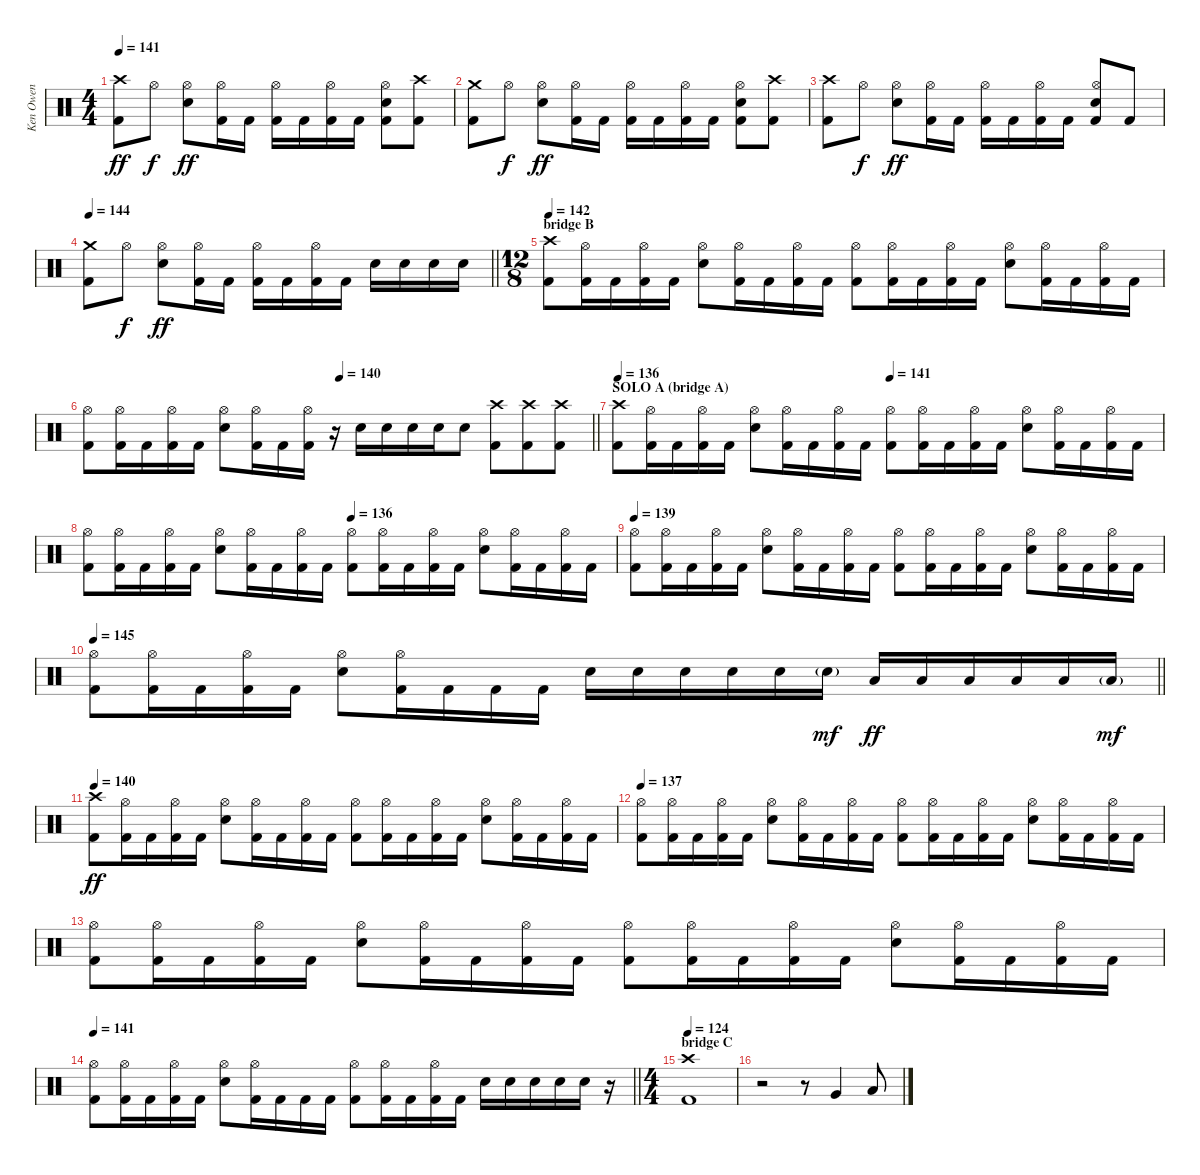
\track ("Ken Owen" "Ken Owen") {instrument percussion}
\staff {score}
\articulation defaults
\ts (4 4)
\tempo 141
\clef neutral
\ks c
("Crash high (hit)" "Kick (hit) 2").8{dy ff} "Hi-Hat (open)".8{dy f} ("Hi-Hat (open)" "Snare (hit) 2").8{dy ff} ("Hi-Hat (open)" "Kick (hit) 2").16 "Kick (hit) 2".16 ("Hi-Hat (open)" "Kick (hit) 2").16 "Kick (hit) 2".16 ("Hi-Hat (open)" "Kick (hit) 2").16 "Kick (hit) 2".16 ("Hi-Hat (open)" "Snare (hit) 2" "Kick (hit) 2").8 ("Crash high (hit)" "Kick (hit) 2").8 |
("Crash medium (hit)" "Kick (hit) 2").8 "Hi-Hat (open)".8{dy f} ("Hi-Hat (open)" "Snare (hit) 2").8{dy ff} ("Hi-Hat (open)" "Kick (hit) 2").16 "Kick (hit) 2".16 ("Hi-Hat (open)" "Kick (hit) 2").16 "Kick (hit) 2".16 ("Hi-Hat (open)" "Kick (hit) 2").16 "Kick (hit) 2".16 ("Hi-Hat (open)" "Snare (hit) 2" "Kick (hit) 2").8 ("Crash high (hit)" "Kick (hit) 2").8 |
("Crash high (hit)" "Kick (hit) 2").8 "Hi-Hat (open)".8{dy f} ("Hi-Hat (open)" "Snare (hit) 2").8{dy ff} ("Hi-Hat (open)" "Kick (hit) 2").16 "Kick (hit) 2".16 ("Hi-Hat (open)" "Kick (hit) 2").16 "Kick (hit) 2".16 ("Hi-Hat (open)" "Kick (hit) 2").16 "Kick (hit) 2".16 ("Hi-Hat (open)" "Snare (hit) 2" "Kick (hit) 2").8 "Kick (hit) 2".8 |
\tempo 144
\barLineRight lightlight
("Crash medium (hit)" "Kick (hit) 2").8 "Hi-Hat (open)".8{dy f} ("Hi-Hat (open)" "Snare (hit) 2").8{dy ff} ("Hi-Hat (open)" "Kick (hit) 2").16 "Kick (hit) 2".16 ("Hi-Hat (open)" "Kick (hit) 2").16 "Kick (hit) 2".16 ("Hi-Hat (open)" "Kick (hit) 2").16 "Kick (hit) 2".16 "Snare (hit) 2".16 "Snare (hit) 2".16 "Snare (hit) 2".16 "Snare (hit) 2".16 |
\ts (12 8)
\section ("" "bridge B")
\tempo 142
("Crash high (hit)" "Kick (hit) 2").8 ("Hi-Hat (open)" "Kick (hit) 2").16 "Kick (hit) 2".16 ("Hi-Hat (open)" "Kick (hit) 2").16 "Kick (hit) 2".16 ("Hi-Hat (open)" "Snare (hit) 2").8 ("Hi-Hat (open)" "Kick (hit) 2").16 "Kick (hit) 2".16 ("Hi-Hat (open)" "Kick (hit) 2").16 "Kick (hit) 2".16 ("Hi-Hat (open)" "Kick (hit) 2").8 ("Hi-Hat (open)" "Kick (hit) 2").16 "Kick (hit) 2".16 ("Hi-Hat (open)" "Kick (hit) 2").16 "Kick (hit) 2".16 ("Hi-Hat (open)" "Snare (hit) 2").8 ("Hi-Hat (open)" "Kick (hit) 2").16 "Kick (hit) 2".16 ("Hi-Hat (open)" "Kick (hit) 2").16 "Kick (hit) 2".16 |
\tempo (140 0.5)
\barLineRight lightlight
("Hi-Hat (open)" "Kick (hit) 2").8 ("Hi-Hat (open)" "Kick (hit) 2").16 "Kick (hit) 2".16 ("Hi-Hat (open)" "Kick (hit) 2").16 "Kick (hit) 2".16 ("Hi-Hat (open)" "Snare (hit) 2").8 ("Hi-Hat (open)" "Kick (hit) 2").16 "Kick (hit) 2".16 ("Hi-Hat (open)" "Kick (hit) 2").16 r.16 "Snare (hit) 2".16 "Snare (hit) 2".16 "Snare (hit) 2".16 "Snare (hit) 2".16 "Snare (hit) 2".8 ("Crash high (hit)" "Kick (hit) 2").8 ("Crash high (hit)" "Kick (hit) 2").8 ("Crash high (hit)" "Kick (hit) 2").8 |
\section ("" "SOLO A (bridge A)")
\tempo 136
\tempo (141 0.5)
("Crash high (hit)" "Kick (hit) 2").8 ("Hi-Hat (open)" "Kick (hit) 2").16 "Kick (hit) 2".16 ("Hi-Hat (open)" "Kick (hit) 2").16 "Kick (hit) 2".16 ("Hi-Hat (open)" "Snare (hit) 2").8 ("Hi-Hat (open)" "Kick (hit) 2").16 "Kick (hit) 2".16 ("Hi-Hat (open)" "Kick (hit) 2").16 "Kick (hit) 2".16 ("Hi-Hat (open)" "Kick (hit) 2").8 ("Hi-Hat (open)" "Kick (hit) 2").16 "Kick (hit) 2".16 ("Hi-Hat (open)" "Kick (hit) 2").16 "Kick (hit) 2".16 ("Hi-Hat (open)" "Snare (hit) 2").8 ("Hi-Hat (open)" "Kick (hit) 2").16 "Kick (hit) 2".16 ("Hi-Hat (open)" "Kick (hit) 2").16 "Kick (hit) 2".16 |
\tempo (136 0.5)
("Hi-Hat (open)" "Kick (hit) 2").8 ("Hi-Hat (open)" "Kick (hit) 2").16 "Kick (hit) 2".16 ("Hi-Hat (open)" "Kick (hit) 2").16 "Kick (hit) 2".16 ("Hi-Hat (open)" "Snare (hit) 2").8 ("Hi-Hat (open)" "Kick (hit) 2").16 "Kick (hit) 2".16 ("Hi-Hat (open)" "Kick (hit) 2").16 "Kick (hit) 2".16 ("Hi-Hat (open)" "Kick (hit) 2").8 ("Hi-Hat (open)" "Kick (hit) 2").16 "Kick (hit) 2".16 ("Hi-Hat (open)" "Kick (hit) 2").16 "Kick (hit) 2".16 ("Hi-Hat (open)" "Snare (hit) 2").8 ("Hi-Hat (open)" "Kick (hit) 2").16 "Kick (hit) 2".16 ("Hi-Hat (open)" "Kick (hit) 2").16 "Kick (hit) 2".16 |
\tempo 139
("Hi-Hat (open)" "Kick (hit) 2").8 ("Hi-Hat (open)" "Kick (hit) 2").16 "Kick (hit) 2".16 ("Hi-Hat (open)" "Kick (hit) 2").16 "Kick (hit) 2".16 ("Hi-Hat (open)" "Snare (hit) 2").8 ("Hi-Hat (open)" "Kick (hit) 2").16 "Kick (hit) 2".16 ("Hi-Hat (open)" "Kick (hit) 2").16 "Kick (hit) 2".16 ("Hi-Hat (open)" "Kick (hit) 2").8 ("Hi-Hat (open)" "Kick (hit) 2").16 "Kick (hit) 2".16 ("Hi-Hat (open)" "Kick (hit) 2").16 "Kick (hit) 2".16 ("Hi-Hat (open)" "Snare (hit) 2").8 ("Hi-Hat (open)" "Kick (hit) 2").16 "Kick (hit) 2".16 ("Hi-Hat (open)" "Kick (hit) 2").16 "Kick (hit) 2".16 |
\tempo 145
\barLineRight lightlight
("Hi-Hat (open)" "Kick (hit) 2").8 ("Hi-Hat (open)" "Kick (hit) 2").16 "Kick (hit) 2".16 ("Hi-Hat (open)" "Kick (hit) 2").16 "Kick (hit) 2".16 ("Hi-Hat (open)" "Snare (hit) 2").8 ("Hi-Hat (open)" "Kick (hit) 2").16 "Kick (hit) 2".16 "Kick (hit) 2".16 "Kick (hit) 2".16 "Snare (hit) 2".16 "Snare (hit) 2".16 "Snare (hit) 2".16 "Snare (hit) 2".16 "Snare (hit) 2".16 "Snare (hit) 2"{g}.16{dy mf} "Low Tom (hit)".16{dy ff} "Low Tom (hit)".16 "Low Tom (hit)".16 "Low Tom (hit)".16 "Low Tom (hit)".16 "Low Tom (hit)"{g}.16{dy mf} |
\tempo 140
("Crash high (hit)" "Kick (hit) 2").8{dy ff} ("Hi-Hat (open)" "Kick (hit) 2").16 "Kick (hit) 2".16 ("Hi-Hat (open)" "Kick (hit) 2").16 "Kick (hit) 2".16 ("Hi-Hat (open)" "Snare (hit) 2").8 ("Hi-Hat (open)" "Kick (hit) 2").16 "Kick (hit) 2".16 ("Hi-Hat (open)" "Kick (hit) 2").16 "Kick (hit) 2".16 ("Hi-Hat (open)" "Kick (hit) 2").8 ("Hi-Hat (open)" "Kick (hit) 2").16 "Kick (hit) 2".16 ("Hi-Hat (open)" "Kick (hit) 2").16 "Kick (hit) 2".16 ("Hi-Hat (open)" "Snare (hit) 2").8 ("Hi-Hat (open)" "Kick (hit) 2").16 "Kick (hit) 2".16 ("Hi-Hat (open)" "Kick (hit) 2").16 "Kick (hit) 2".16 |
\tempo 137
("Hi-Hat (open)" "Kick (hit) 2").8 ("Hi-Hat (open)" "Kick (hit) 2").16 "Kick (hit) 2".16 ("Hi-Hat (open)" "Kick (hit) 2").16 "Kick (hit) 2".16 ("Hi-Hat (open)" "Snare (hit) 2").8 ("Hi-Hat (open)" "Kick (hit) 2").16 "Kick (hit) 2".16 ("Hi-Hat (open)" "Kick (hit) 2").16 "Kick (hit) 2".16 ("Hi-Hat (open)" "Kick (hit) 2").8 ("Hi-Hat (open)" "Kick (hit) 2").16 "Kick (hit) 2".16 ("Hi-Hat (open)" "Kick (hit) 2").16 "Kick (hit) 2".16 ("Hi-Hat (open)" "Snare (hit) 2").8 ("Hi-Hat (open)" "Kick (hit) 2").16 "Kick (hit) 2".16 ("Hi-Hat (open)" "Kick (hit) 2").16 "Kick (hit) 2".16 |
("Hi-Hat (open)" "Kick (hit) 2").8 ("Hi-Hat (open)" "Kick (hit) 2").16 "Kick (hit) 2".16 ("Hi-Hat (open)" "Kick (hit) 2").16 "Kick (hit) 2".16 ("Hi-Hat (open)" "Snare (hit) 2").8 ("Hi-Hat (open)" "Kick (hit) 2").16 "Kick (hit) 2".16 ("Hi-Hat (open)" "Kick (hit) 2").16 "Kick (hit) 2".16 ("Hi-Hat (open)" "Kick (hit) 2").8 ("Hi-Hat (open)" "Kick (hit) 2").16 "Kick (hit) 2".16 ("Hi-Hat (open)" "Kick (hit) 2").16 "Kick (hit) 2".16 ("Hi-Hat (open)" "Snare (hit) 2").8 ("Hi-Hat (open)" "Kick (hit) 2").16 "Kick (hit) 2".16 ("Hi-Hat (open)" "Kick (hit) 2").16 "Kick (hit) 2".16 |
\tempo 141
\barLineRight lightlight
("Hi-Hat (open)" "Kick (hit) 2").8 ("Hi-Hat (open)" "Kick (hit) 2").16 "Kick (hit) 2".16 ("Hi-Hat (open)" "Kick (hit) 2").16 "Kick (hit) 2".16 ("Hi-Hat (open)" "Snare (hit) 2").8 ("Hi-Hat (open)" "Kick (hit) 2").16 "Kick (hit) 2".16 "Kick (hit) 2".16 "Kick (hit) 2".16 ("Hi-Hat (open)" "Kick (hit) 2").8 ("Hi-Hat (open)" "Kick (hit) 2").16 "Kick (hit) 2".16 ("Hi-Hat (open)" "Kick (hit) 2").16 "Kick (hit) 2".16 "Snare (hit) 2".16 "Snare (hit) 2".16 "Snare (hit) 2".16 "Snare (hit) 2".16 "Snare (hit) 2".16 r.16 |
\ts (4 4)
\section ("" "bridge C")
\tempo 124
("Crash high (hit)" "Kick (hit) 2").1 |
r.2 r.8 "Very Low Tom (hit)".4 "Low Floor Tom (hit)".8
